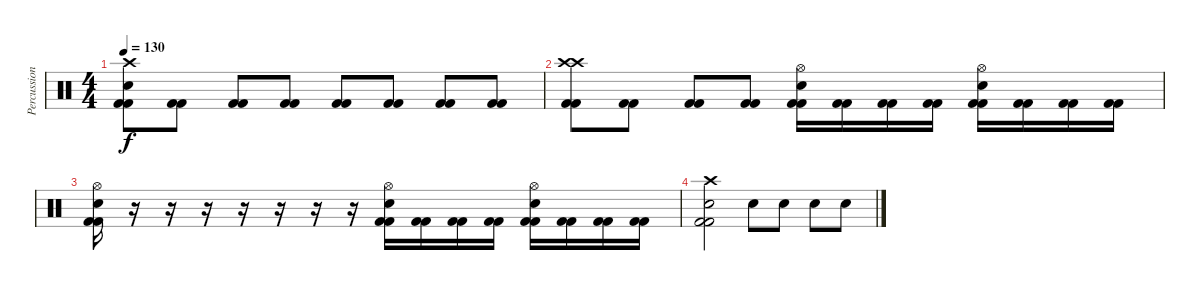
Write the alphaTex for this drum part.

\track ("Percussion" "Percussion") {instrument percussion}
\staff {score}
\articulation defaults
\ts (4 4)
\tempo 130
\clef neutral
\ks c
("Crash high (hit)" "Electric Snare (hit)" "Kick (hit) 2" "Kick (hit) 2").8{dy f} ("Kick (hit) 2" "Kick (hit) 2").8 ("Kick (hit) 2" "Kick (hit) 2").8 ("Kick (hit) 2" "Kick (hit) 2").8 ("Kick (hit) 2" "Kick (hit) 2").8 ("Kick (hit) 2" "Kick (hit) 2").8 ("Kick (hit) 2" "Kick (hit) 2").8 ("Kick (hit) 2" "Kick (hit) 2").8 |
("Crash high (hit)" "Crash high (hit)" "Kick (hit) 2" "Kick (hit) 2").8 ("Kick (hit) 2" "Kick (hit) 2").8 ("Kick (hit) 2" "Kick (hit) 2").8 ("Kick (hit) 2" "Kick (hit) 2").8 ("Hi-Hat (open)" "Electric Snare (hit)" "Kick (hit) 2" "Kick (hit) 2").16 ("Kick (hit) 2" "Kick (hit) 2").16 ("Kick (hit) 2" "Kick (hit) 2").16 ("Kick (hit) 2" "Kick (hit) 2").16 ("Hi-Hat (open)" "Electric Snare (hit)" "Kick (hit) 2" "Kick (hit) 2").16 ("Kick (hit) 2" "Kick (hit) 2").16 ("Kick (hit) 2" "Kick (hit) 2").16 ("Kick (hit) 2" "Kick (hit) 2").16 |
("Hi-Hat (open)" "Electric Snare (hit)" "Kick (hit) 2" "Kick (hit) 2").16 r.16 r.16 r.16 r.16 r.16 r.16 r.16 ("Hi-Hat (open)" "Electric Snare (hit)" "Kick (hit) 2" "Kick (hit) 2").16 ("Kick (hit) 2" "Kick (hit) 2").16 ("Kick (hit) 2" "Kick (hit) 2").16 ("Kick (hit) 2" "Kick (hit) 2").16 ("Hi-Hat (open)" "Electric Snare (hit)" "Kick (hit) 2" "Kick (hit) 2").16 ("Kick (hit) 2" "Kick (hit) 2").16 ("Kick (hit) 2" "Kick (hit) 2").16 ("Kick (hit) 2" "Kick (hit) 2").16 |
("Crash high (hit)" "Electric Snare (hit)" "Kick (hit) 2" "Kick (hit) 2").2 "Electric Snare (hit)".8 "Electric Snare (hit)".8 "Electric Snare (hit)".8 "Electric Snare (hit)".8
